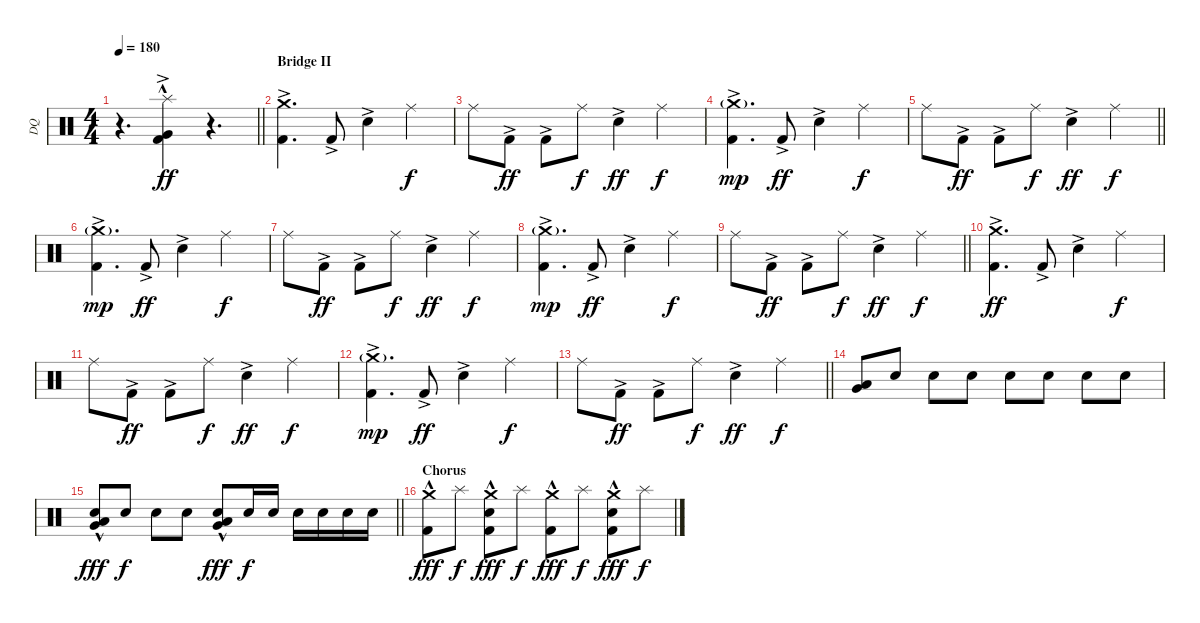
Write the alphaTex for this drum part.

\track ("DQ" "DQ") {instrument percussion}
\staff {score}
\articulation defaults
\ts (4 4)
\tempo 180
\clef neutral
\barLineRight lightlight
\ks c
r.4{d dy fff} ("Kick (hit) 2"{hac} "Very Low Tom (hit)"{ac} "Splash (hit)").4{dy ff} r.4{d} |
\section ("" "Bridge II")
("Kick (hit) 2"{ac} "Crash medium (hit)").4{d} "Kick (hit) 2"{ac}.8 "Snare (hit) 2"{ac}.4 "Ride (middle)".4{dy f} |
"Ride (middle)".8 "Kick (hit) 2"{ac}.8{dy ff} "Kick (hit) 2"{ac}.8 "Ride (middle)".8{dy f} "Snare (hit) 2"{ac}.4{dy ff} "Ride (middle)".4{dy f} |
("Kick (hit) 2"{ac} "Crash medium (hit)"{g}).4{d dy mp} "Kick (hit) 2"{ac}.8{dy ff} "Snare (hit) 2"{ac}.4 "Ride (middle)".4{dy f} |
\barLineRight lightlight "Ride (middle)".8 "Kick (hit) 2"{ac}.8{dy ff} "Kick (hit) 2"{ac}.8 "Ride (middle)".8{dy f} "Snare (hit) 2"{ac}.4{dy ff} "Ride (middle)".4{dy f}
|
\section ("" "")
("Kick (hit) 2"{ac} "Crash medium (hit)"{g}).4{d dy mp} "Kick (hit) 2"{ac}.8{dy ff} "Snare (hit) 2"{ac}.4 "Ride (middle)".4{dy f} |
"Ride (middle)".8 "Kick (hit) 2"{ac}.8{dy ff} "Kick (hit) 2"{ac}.8 "Ride (middle)".8{dy f} "Snare (hit) 2"{ac}.4{dy ff} "Ride (middle)".4{dy f} |
("Kick (hit) 2"{ac} "Crash medium (hit)"{g}).4{d dy mp} "Kick (hit) 2"{ac}.8{dy ff} "Snare (hit) 2"{ac}.4 "Ride (middle)".4{dy f} |
\barLineRight lightlight "Ride (middle)".8 "Kick (hit) 2"{ac}.8{dy ff} "Kick (hit) 2"{ac}.8 "Ride (middle)".8{dy f} "Snare (hit) 2"{ac}.4{dy ff} "Ride (middle)".4{dy f}
|
\section ("" "")
("Kick (hit) 2"{ac} "Crash medium (hit)").4{d dy ff} "Kick (hit) 2"{ac}.8 "Snare (hit) 2"{ac}.4 "Ride (middle)".4{dy f} |
"Ride (middle)".8 "Kick (hit) 2"{ac}.8{dy ff} "Kick (hit) 2"{ac}.8 "Ride (middle)".8{dy f} "Snare (hit) 2"{ac}.4{dy ff} "Ride (middle)".4{dy f} |
("Kick (hit) 2"{ac} "Crash medium (hit)"{g}).4{d dy mp} "Kick (hit) 2"{ac}.8{dy ff} "Snare (hit) 2"{ac}.4 "Ride (middle)".4{dy f} |
\barLineRight lightlight "Ride (middle)".8 "Kick (hit) 2"{ac}.8{dy ff} "Kick (hit) 2"{ac}.8 "Ride (middle)".8{dy f} "Snare (hit) 2"{ac}.4{dy ff} "Ride (middle)".4{dy f}
|
\section ("" "")
("Very Low Tom (hit)" "Low Floor Tom (hit)").8 "Snare (hit) 2".8{volume 8} "Snare (hit) 2".8{volume 13} "Snare (hit) 2".8 "Snare (hit) 2".8 "Snare (hit) 2".8 "Snare (hit) 2".8 "Snare (hit) 2".8 |
\barLineRight lightlight
("Snare (hit) 2" "Very Low Tom (hit)"{hac} "Low Floor Tom (hit)").8{dy fff} "Snare (hit) 2".8{dy f} "Snare (hit) 2".8 "Snare (hit) 2".8 ("Snare (hit) 2" "Very Low Tom (hit)"{hac} "Low Floor Tom (hit)").8{dy fff} "Snare (hit) 2".16{dy f} "Snare (hit) 2".16 "Snare (hit) 2".16 "Snare (hit) 2".16 "Snare (hit) 2".16 "Snare (hit) 2".16 |
\section ("" "Chorus")
("Kick (hit) 2"{hac} "Crash medium (hit)").8{dy fff volume 13} "Splash (hit)".8{dy f} ("Kick (hit) 2"{hac} "Snare (hit) 2"{hac} "Crash medium (hit)").8{dy fff} "Splash (hit)".8{dy f} ("Kick (hit) 2"{hac} "Crash medium (hit)").8{dy fff} "Splash (hit)".8{dy f} ("Kick (hit) 2"{hac} "Snare (hit) 2"{hac} "Crash medium (hit)").8{dy fff} "Splash (hit)".8{dy f}
